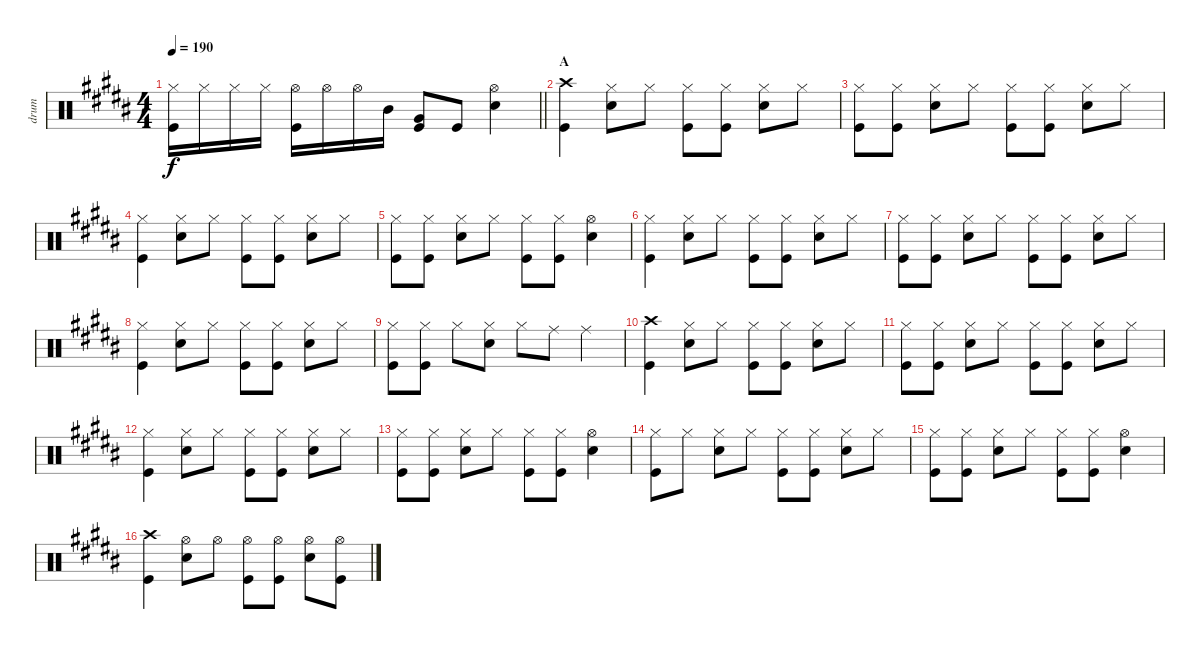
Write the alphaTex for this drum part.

\track ("drum" "drum") {instrument percussion}
\staff {score}
\articulation defaults
\ts (4 4)
\tempo 190
\clef neutral
\barLineRight lightlight
\ks b
("Hi-Hat (closed)" "Kick (hit)").16{dy f} "Hi-Hat (closed)".16 "Hi-Hat (closed)".16 "Hi-Hat (closed)".16 ("Hi-Hat (open)" "Kick (hit)").16 "Hi-Hat (open)".16 "Hi-Hat (open)".16 "Mid Tom (hit)".16 ("Very Low Tom (hit)" "Kick (hit)").8 "Kick (hit)".8 ("Hi-Hat (open)" "Snare (hit) 2").4 |
\section ("" "A")
("Crash high (hit)" "Kick (hit)").4 ("Hi-Hat (closed)" "Snare (hit) 2").8 "Hi-Hat (closed)".8 ("Hi-Hat (closed)" "Kick (hit)").8 ("Hi-Hat (closed)" "Kick (hit)").8 ("Hi-Hat (closed)" "Snare (hit) 2").8 "Hi-Hat (closed)".8 |
("Hi-Hat (closed)" "Kick (hit)").8 ("Hi-Hat (closed)" "Kick (hit)").8 ("Hi-Hat (closed)" "Snare (hit) 2").8 "Hi-Hat (closed)".8 ("Hi-Hat (closed)" "Kick (hit)").8 ("Hi-Hat (closed)" "Kick (hit)").8 ("Hi-Hat (closed)" "Snare (hit) 2").8 "Hi-Hat (closed)".8 |
("Hi-Hat (closed)" "Kick (hit)").4 ("Hi-Hat (closed)" "Snare (hit) 2").8 "Hi-Hat (closed)".8 ("Hi-Hat (closed)" "Kick (hit)").8 ("Hi-Hat (closed)" "Kick (hit)").8 ("Hi-Hat (closed)" "Snare (hit) 2").8 "Hi-Hat (closed)".8 |
("Hi-Hat (closed)" "Kick (hit)").8 ("Hi-Hat (closed)" "Kick (hit)").8 ("Hi-Hat (closed)" "Snare (hit) 2").8 "Hi-Hat (closed)".8 ("Hi-Hat (closed)" "Kick (hit)").8 ("Hi-Hat (closed)" "Kick (hit)").8 ("Hi-Hat (open)" "Snare (hit) 2").4 |
("Hi-Hat (closed)" "Kick (hit)").4 ("Hi-Hat (closed)" "Snare (hit) 2").8 "Hi-Hat (closed)".8 ("Hi-Hat (closed)" "Kick (hit)").8 ("Hi-Hat (closed)" "Kick (hit)").8 ("Hi-Hat (closed)" "Snare (hit) 2").8 "Hi-Hat (closed)".8 |
("Hi-Hat (closed)" "Kick (hit)").8 ("Hi-Hat (closed)" "Kick (hit)").8 ("Hi-Hat (closed)" "Snare (hit) 2").8 "Hi-Hat (closed)".8 ("Hi-Hat (closed)" "Kick (hit)").8 ("Hi-Hat (closed)" "Kick (hit)").8 ("Hi-Hat (closed)" "Snare (hit) 2").8 "Hi-Hat (closed)".8 |
("Hi-Hat (closed)" "Kick (hit)").4 ("Hi-Hat (closed)" "Snare (hit) 2").8 "Hi-Hat (closed)".8 ("Hi-Hat (closed)" "Kick (hit)").8 ("Hi-Hat (closed)" "Kick (hit)").8 ("Hi-Hat (closed)" "Snare (hit) 2").8 "Hi-Hat (closed)".8 |
("Hi-Hat (closed)" "Kick (hit)").8 ("Hi-Hat (closed)" "Kick (hit)").8 "Hi-Hat (closed)".8 ("Hi-Hat (closed)" "Snare (hit) 2").8 "Hi-Hat (closed)".8 "Ride (middle)".8 "Ride (middle)".4 |
("Crash high (hit)" "Kick (hit)").4 ("Hi-Hat (closed)" "Snare (hit) 2").8 "Hi-Hat (closed)".8 ("Hi-Hat (closed)" "Kick (hit)").8 ("Hi-Hat (closed)" "Kick (hit)").8 ("Hi-Hat (closed)" "Snare (hit) 2").8 "Hi-Hat (closed)".8 |
("Hi-Hat (closed)" "Kick (hit)").8 ("Hi-Hat (closed)" "Kick (hit)").8 ("Hi-Hat (closed)" "Snare (hit) 2").8 "Hi-Hat (closed)".8 ("Hi-Hat (closed)" "Kick (hit)").8 ("Hi-Hat (closed)" "Kick (hit)").8 ("Hi-Hat (closed)" "Snare (hit) 2").8 "Hi-Hat (closed)".8 |
("Hi-Hat (closed)" "Kick (hit)").4 ("Hi-Hat (closed)" "Snare (hit) 2").8 "Hi-Hat (closed)".8 ("Hi-Hat (closed)" "Kick (hit)").8 ("Hi-Hat (closed)" "Kick (hit)").8 ("Hi-Hat (closed)" "Snare (hit) 2").8 "Hi-Hat (closed)".8 |
("Hi-Hat (closed)" "Kick (hit)").8 ("Hi-Hat (closed)" "Kick (hit)").8 ("Hi-Hat (closed)" "Snare (hit) 2").8 "Hi-Hat (closed)".8 ("Hi-Hat (closed)" "Kick (hit)").8 ("Hi-Hat (closed)" "Kick (hit)").8 ("Hi-Hat (open)" "Snare (hit) 2").4 |
("Hi-Hat (closed)" "Kick (hit)").8 "Hi-Hat (closed)".8 ("Hi-Hat (closed)" "Snare (hit) 2").8 "Hi-Hat (closed)".8 ("Hi-Hat (closed)" "Kick (hit)").8 ("Hi-Hat (closed)" "Kick (hit)").8 ("Hi-Hat (closed)" "Snare (hit) 2").8 "Hi-Hat (closed)".8 |
("Hi-Hat (closed)" "Kick (hit)").8 ("Hi-Hat (closed)" "Kick (hit)").8 ("Hi-Hat (closed)" "Snare (hit) 2").8 "Hi-Hat (closed)".8 ("Hi-Hat (closed)" "Kick (hit)").8 ("Hi-Hat (closed)" "Kick (hit)").8 ("Hi-Hat (open)" "Snare (hit) 2").4 |
("Crash high (hit)" "Kick (hit)").4 ("Hi-Hat (open)" "Snare (hit) 2").8 "Hi-Hat (open)".8 ("Hi-Hat (open)" "Kick (hit)").8 ("Hi-Hat (open)" "Kick (hit)").8 ("Hi-Hat (open)" "Snare (hit) 2").8 ("Hi-Hat (open)" "Kick (hit)").8
